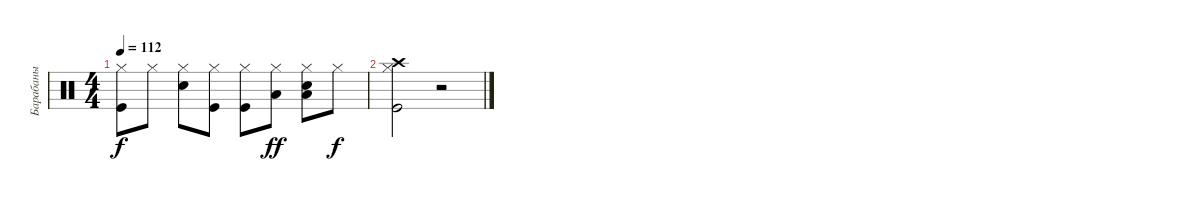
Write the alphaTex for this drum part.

\track ("Барабаны" "Барабаны") {instrument percussion}
\staff {score}
\articulation defaults
\ts (4 4)
\tempo 112
\clef neutral
\ks c
("Kick (hit)" "Hi-Hat (closed)").8{dy f} "Hi-Hat (closed)".8 ("Snare (hit) 2" "Hi-Hat (closed)").8 ("Kick (hit)" "Hi-Hat (closed)").8 ("Kick (hit)" "Hi-Hat (closed)").8 ("Hi-Hat (closed)" "Low Floor Tom (hit)").8{dy ff} ("Snare (hit) 2" "Hi-Hat (closed)" "Low Floor Tom (hit)").8 "Hi-Hat (closed)".8{dy f} |
("Kick (hit)" "Hi-Hat (closed)" "Crash high (hit)").2 r.2
